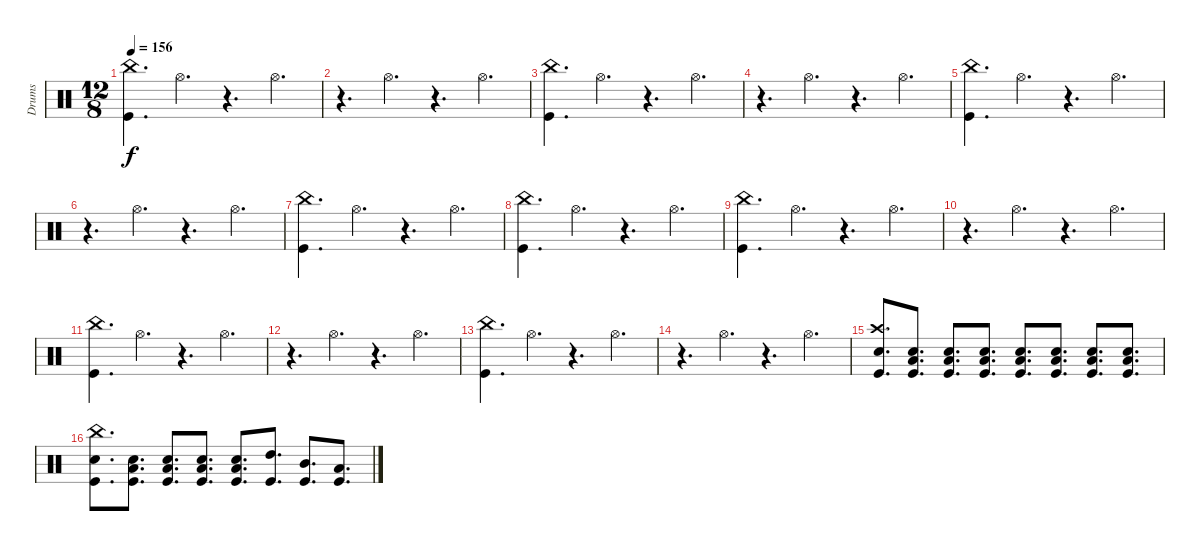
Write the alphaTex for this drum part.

\track ("Drums" "Drums") {instrument percussion}
\staff {score}
\articulation defaults
\ts (12 8)
\tempo 156
\clef neutral
\ks c
("China (hit)" "Kick (hit)").4{d dy f} "Hi-Hat (open)".4{d} r.4{d} "Hi-Hat (open)".4{d} |
r.4{d} "Hi-Hat (open)".4{d} r.4{d} "Hi-Hat (open)".4{d} |
("China (hit)" "Kick (hit)").4{d} "Hi-Hat (open)".4{d} r.4{d} "Hi-Hat (open)".4{d} |
r.4{d} "Hi-Hat (open)".4{d} r.4{d} "Hi-Hat (open)".4{d} |
("China (hit)" "Kick (hit)").4{d} "Hi-Hat (open)".4{d} r.4{d} "Hi-Hat (open)".4{d} |
r.4{d} "Hi-Hat (open)".4{d} r.4{d} "Hi-Hat (open)".4{d} |
("China (hit)" "Kick (hit)").4{d} "Hi-Hat (open)".4{d} r.4{d} "Hi-Hat (open)".4{d} |
("China (hit)" "Kick (hit)").4{d} "Hi-Hat (open)".4{d} r.4{d} "Hi-Hat (open)".4{d} |
("China (hit)" "Kick (hit)").4{d} "Hi-Hat (open)".4{d} r.4{d} "Hi-Hat (open)".4{d} |
r.4{d} "Hi-Hat (open)".4{d} r.4{d} "Hi-Hat (open)".4{d} |
("China (hit)" "Kick (hit)").4{d} "Hi-Hat (open)".4{d} r.4{d} "Hi-Hat (open)".4{d} |
r.4{d} "Hi-Hat (open)".4{d} r.4{d} "Hi-Hat (open)".4{d} |
("China (hit)" "Kick (hit)").4{d} "Hi-Hat (open)".4{d} r.4{d} "Hi-Hat (open)".4{d} |
r.4{d} "Hi-Hat (open)".4{d} r.4{d} "Hi-Hat (open)".4{d} |
("Crash high (hit)" "Electric Snare (hit)" "Kick (hit)").8{d} ("Low Tom (hit)" "Electric Snare (hit)" "Kick (hit)").8{d} ("Low Tom (hit)" "Electric Snare (hit)" "Kick (hit)").8{d} ("Low Tom (hit)" "Electric Snare (hit)" "Kick (hit)").8{d} ("Low Tom (hit)" "Electric Snare (hit)" "Kick (hit)").8{d} ("Low Tom (hit)" "Electric Snare (hit)" "Kick (hit)").8{d} ("Low Tom (hit)" "Electric Snare (hit)" "Kick (hit)").8{d} ("Low Tom (hit)" "Electric Snare (hit)" "Kick (hit)").8{d} |
("China (hit)" "Electric Snare (hit)" "Kick (hit)").8{d} ("Low Tom (hit)" "Electric Snare (hit)" "Kick (hit)").8{d} ("Low Tom (hit)" "Electric Snare (hit)" "Kick (hit)").8{d} ("Low Tom (hit)" "Electric Snare (hit)" "Kick (hit)").8{d} ("Low Tom (hit)" "Electric Snare (hit)" "Kick (hit)").8{d} ("High Tom (hit)" "Kick (hit)").8{d} ("Mid Tom (hit)" "Kick (hit)").8{d} ("Low Tom (hit)" "Kick (hit)").8{d}
